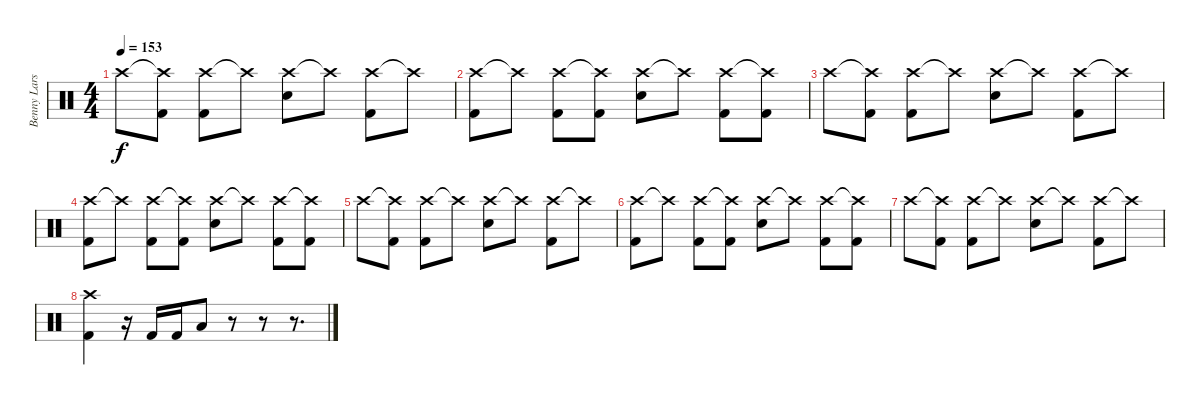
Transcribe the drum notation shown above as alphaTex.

\track ("Benny Larsson" "Benny Lars") {instrument percussion}
\staff {score}
\articulation defaults
\ts (4 4)
\tempo 153
\clef neutral
\ks c "Crash high (hit)".8{dy f}
("Crash high (hit)"{t} "Kick (hit) 2").8 ("Crash high (hit)" "Kick (hit) 2").8 "Crash high (hit)"{t}.8 ("Crash high (hit)" "Electric Snare (hit)").8 "Crash high (hit)"{t}.8 ("Crash high (hit)" "Kick (hit) 2").8 "Crash high (hit)"{t}.8 |
("Crash high (hit)" "Kick (hit) 2").8 "Crash high (hit)"{t}.8 ("Crash high (hit)" "Kick (hit) 2").8 ("Crash high (hit)"{t} "Kick (hit) 2").8 ("Crash high (hit)" "Electric Snare (hit)").8 "Crash high (hit)"{t}.8 ("Crash high (hit)" "Kick (hit) 2").8 ("Crash high (hit)"{t} "Kick (hit) 2").8 |
"Crash high (hit)".8 ("Crash high (hit)"{t} "Kick (hit) 2").8 ("Crash high (hit)" "Kick (hit) 2").8 "Crash high (hit)"{t}.8 ("Crash high (hit)" "Electric Snare (hit)").8 "Crash high (hit)"{t}.8 ("Crash high (hit)" "Kick (hit) 2").8 "Crash high (hit)"{t}.8 |
("Crash high (hit)" "Kick (hit) 2").8 "Crash high (hit)"{t}.8 ("Crash high (hit)" "Kick (hit) 2").8 ("Crash high (hit)"{t} "Kick (hit) 2").8 ("Crash high (hit)" "Electric Snare (hit)").8 "Crash high (hit)"{t}.8 ("Crash high (hit)" "Kick (hit) 2").8 ("Crash high (hit)"{t} "Kick (hit) 2").8 |
"Crash high (hit)".8 ("Crash high (hit)"{t} "Kick (hit) 2").8 ("Crash high (hit)" "Kick (hit) 2").8 "Crash high (hit)"{t}.8 ("Crash high (hit)" "Electric Snare (hit)").8 "Crash high (hit)"{t}.8 ("Crash high (hit)" "Kick (hit) 2").8 "Crash high (hit)"{t}.8 |
("Crash high (hit)" "Kick (hit) 2").8 "Crash high (hit)"{t}.8 ("Crash high (hit)" "Kick (hit) 2").8 ("Crash high (hit)"{t} "Kick (hit) 2").8 ("Crash high (hit)" "Electric Snare (hit)").8 "Crash high (hit)"{t}.8 ("Crash high (hit)" "Kick (hit) 2").8 ("Crash high (hit)"{t} "Kick (hit) 2").8 |
"Crash high (hit)".8 ("Crash high (hit)"{t} "Kick (hit) 2").8 ("Crash high (hit)" "Kick (hit) 2").8 "Crash high (hit)"{t}.8 ("Crash high (hit)" "Electric Snare (hit)").8 "Crash high (hit)"{t}.8 ("Crash high (hit)" "Kick (hit) 2").8 "Crash high (hit)"{t}.8 |
("Crash high (hit)" "Kick (hit) 2").4 r.16 "Kick (hit) 2".16 "Kick (hit) 2".16 "Low Floor Tom (hit)".8 r.8 r.8 r.8{d}
